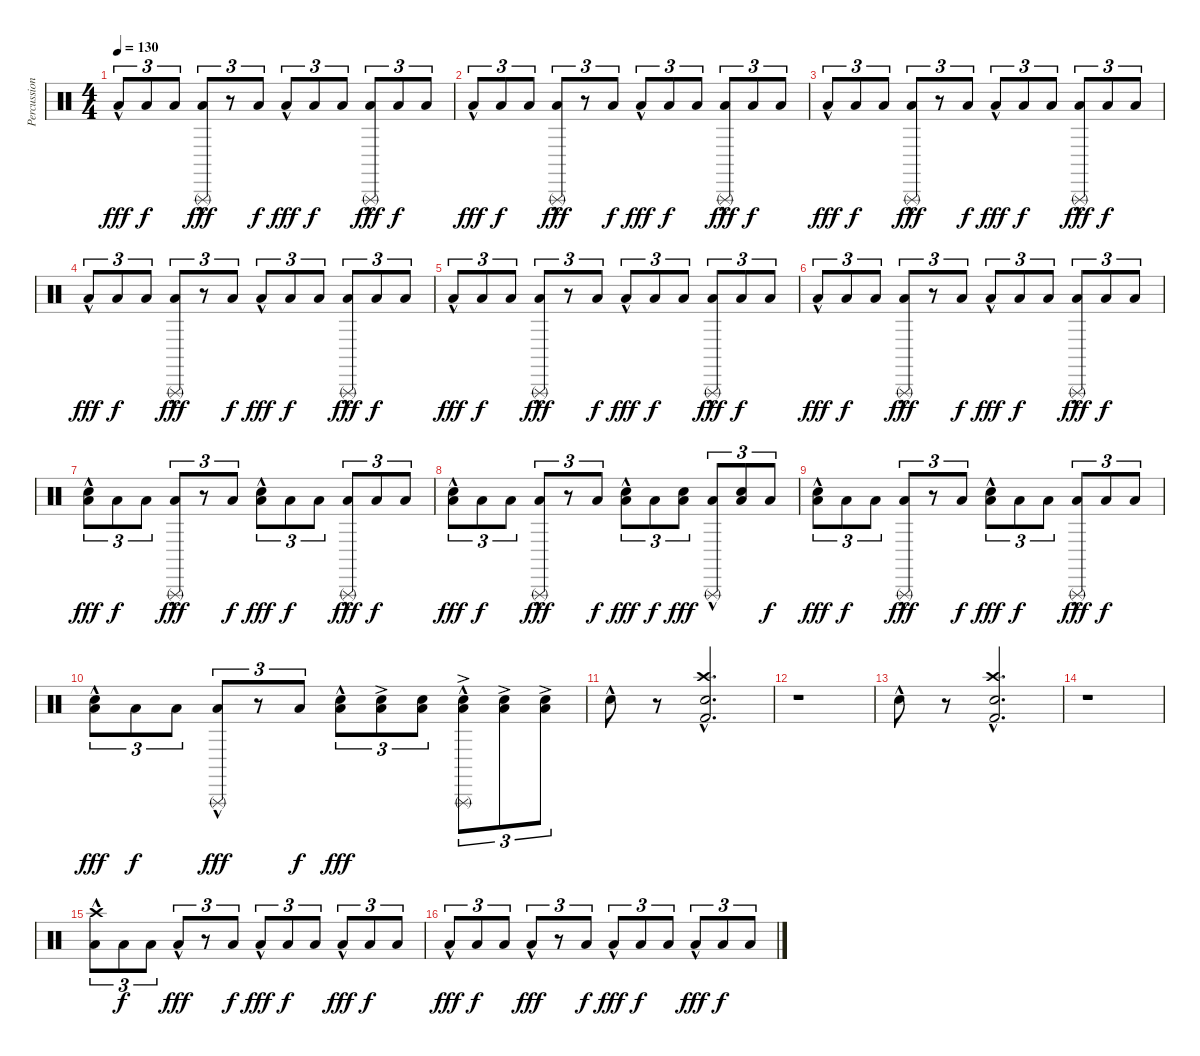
\track ("Percussion" "Percussion") {instrument percussion}
\staff {score}
\articulation defaults
\ts (4 4)
\tempo 130
\clef neutral
\ks c "Low Tom (hit)"{hac}.8{tu (3 2) dy fff} "Low Tom (hit)".8{tu (3 2) dy f} "Low Tom (hit)".8{tu (3 2)}
("Low Tom (hit)"{hac} "Triangle (rnute)").8{tu (3 2) dy fff} r.8{tu (3 2)} "Low Tom (hit)".8{tu (3 2) dy f} "Low Tom (hit)"{hac}.8{tu (3 2) dy fff} "Low Tom (hit)".8{tu (3 2) dy f} "Low Tom (hit)".8{tu (3 2)} ("Low Tom (hit)"{hac} "Triangle (rnute)").8{tu (3 2) dy fff} "Low Tom (hit)".8{tu (3 2) dy f} "Low Tom (hit)".8{tu (3 2)} |
"Low Tom (hit)"{hac}.8{tu (3 2) dy fff} "Low Tom (hit)".8{tu (3 2) dy f} "Low Tom (hit)".8{tu (3 2)} ("Low Tom (hit)"{hac} "Triangle (rnute)").8{tu (3 2) dy fff} r.8{tu (3 2)} "Low Tom (hit)".8{tu (3 2) dy f} "Low Tom (hit)"{hac}.8{tu (3 2) dy fff} "Low Tom (hit)".8{tu (3 2) dy f} "Low Tom (hit)".8{tu (3 2)} ("Low Tom (hit)"{hac} "Triangle (rnute)").8{tu (3 2) dy fff} "Low Tom (hit)".8{tu (3 2) dy f} "Low Tom (hit)".8{tu (3 2)} |
"Low Tom (hit)"{hac}.8{tu (3 2) dy fff} "Low Tom (hit)".8{tu (3 2) dy f} "Low Tom (hit)".8{tu (3 2)} ("Low Tom (hit)"{hac} "Triangle (rnute)").8{tu (3 2) dy fff} r.8{tu (3 2)} "Low Tom (hit)".8{tu (3 2) dy f} "Low Tom (hit)"{hac}.8{tu (3 2) dy fff} "Low Tom (hit)".8{tu (3 2) dy f} "Low Tom (hit)".8{tu (3 2)} ("Low Tom (hit)"{hac} "Triangle (rnute)").8{tu (3 2) dy fff} "Low Tom (hit)".8{tu (3 2) dy f} "Low Tom (hit)".8{tu (3 2)} |
"Low Tom (hit)"{hac}.8{tu (3 2) dy fff} "Low Tom (hit)".8{tu (3 2) dy f} "Low Tom (hit)".8{tu (3 2)} ("Low Tom (hit)"{hac} "Triangle (rnute)").8{tu (3 2) dy fff} r.8{tu (3 2)} "Low Tom (hit)".8{tu (3 2) dy f} "Low Tom (hit)"{hac}.8{tu (3 2) dy fff} "Low Tom (hit)".8{tu (3 2) dy f} "Low Tom (hit)".8{tu (3 2)} ("Low Tom (hit)"{hac} "Triangle (rnute)").8{tu (3 2) dy fff} "Low Tom (hit)".8{tu (3 2) dy f} "Low Tom (hit)".8{tu (3 2)} |
"Low Tom (hit)"{hac}.8{tu (3 2) dy fff} "Low Tom (hit)".8{tu (3 2) dy f} "Low Tom (hit)".8{tu (3 2)} ("Low Tom (hit)"{hac} "Triangle (rnute)").8{tu (3 2) dy fff} r.8{tu (3 2)} "Low Tom (hit)".8{tu (3 2) dy f} "Low Tom (hit)"{hac}.8{tu (3 2) dy fff} "Low Tom (hit)".8{tu (3 2) dy f} "Low Tom (hit)".8{tu (3 2)} ("Low Tom (hit)"{hac} "Triangle (rnute)").8{tu (3 2) dy fff} "Low Tom (hit)".8{tu (3 2) dy f} "Low Tom (hit)".8{tu (3 2)} |
"Low Tom (hit)"{hac}.8{tu (3 2) dy fff} "Low Tom (hit)".8{tu (3 2) dy f} "Low Tom (hit)".8{tu (3 2)} ("Low Tom (hit)"{hac} "Triangle (rnute)").8{tu (3 2) dy fff} r.8{tu (3 2)} "Low Tom (hit)".8{tu (3 2) dy f} "Low Tom (hit)"{hac}.8{tu (3 2) dy fff} "Low Tom (hit)".8{tu (3 2) dy f} "Low Tom (hit)".8{tu (3 2)} ("Low Tom (hit)"{hac} "Triangle (rnute)").8{tu (3 2) dy fff} "Low Tom (hit)".8{tu (3 2) dy f} "Low Tom (hit)".8{tu (3 2)} |
("Low Tom (hit)"{hac} "Snare (hit) 2").8{tu (3 2) dy fff} "Low Tom (hit)".8{tu (3 2) dy f} "Low Tom (hit)".8{tu (3 2)} ("Low Tom (hit)"{hac} "Triangle (rnute)").8{tu (3 2) dy fff} r.8{tu (3 2)} "Low Tom (hit)".8{tu (3 2) dy f} ("Low Tom (hit)"{hac} "Snare (hit) 2").8{tu (3 2) dy fff} "Low Tom (hit)".8{tu (3 2) dy f} "Low Tom (hit)".8{tu (3 2)} ("Low Tom (hit)"{hac} "Triangle (rnute)").8{tu (3 2) dy fff} "Low Tom (hit)".8{tu (3 2) dy f} "Low Tom (hit)".8{tu (3 2)} |
("Low Tom (hit)"{hac} "Snare (hit) 2").8{tu (3 2) dy fff} "Low Tom (hit)".8{tu (3 2) dy f} "Low Tom (hit)".8{tu (3 2)} ("Low Tom (hit)"{hac} "Triangle (rnute)").8{tu (3 2) dy fff} r.8{tu (3 2)} "Low Tom (hit)".8{tu (3 2) dy f} ("Low Tom (hit)"{hac} "Snare (hit) 2").8{tu (3 2) dy fff} "Low Tom (hit)".8{tu (3 2) dy f} ("Low Tom (hit)" "Snare (hit) 2").8{tu (3 2) dy fff} ("Low Tom (hit)"{hac} "Triangle (rnute)").8{tu (3 2)} ("Low Tom (hit)" "Snare (hit) 2").8{tu (3 2)} "Low Tom (hit)".8{tu (3 2) dy f} |
("Low Tom (hit)"{hac} "Snare (hit) 2").8{tu (3 2) dy fff} "Low Tom (hit)".8{tu (3 2) dy f} "Low Tom (hit)".8{tu (3 2)} ("Low Tom (hit)"{hac} "Triangle (rnute)").8{tu (3 2) dy fff} r.8{tu (3 2)} "Low Tom (hit)".8{tu (3 2) dy f} ("Low Tom (hit)"{hac} "Snare (hit) 2").8{tu (3 2) dy fff} "Low Tom (hit)".8{tu (3 2) dy f} "Low Tom (hit)".8{tu (3 2)} ("Low Tom (hit)"{hac} "Triangle (rnute)").8{tu (3 2) dy fff} "Low Tom (hit)".8{tu (3 2) dy f} "Low Tom (hit)".8{tu (3 2)} |
("Low Tom (hit)"{hac} "Snare (hit) 2").8{tu (3 2) dy fff} "Low Tom (hit)".8{tu (3 2) dy f} "Low Tom (hit)".8{tu (3 2)} ("Low Tom (hit)"{hac} "Triangle (rnute)").8{tu (3 2) dy fff} r.8{tu (3 2)} "Low Tom (hit)".8{tu (3 2) dy f} ("Low Tom (hit)"{hac} "Snare (hit) 2").8{tu (3 2) dy fff} ("Low Tom (hit)" "Snare (hit) 2"{ac}).8{tu (3 2)} ("Low Tom (hit)" "Snare (hit) 2").8{tu (3 2)} ("Low Tom (hit)"{hac} "Snare (hit) 2"{ac} "Triangle (rnute)").8{tu (3 2)} ("Low Tom (hit)" "Snare (hit) 2"{ac}).8{tu (3 2)} ("Low Tom (hit)" "Snare (hit) 2"{ac}).8{tu (3 2)} |
"Snare (hit) 2"{hac}.8 r.8 ("Crash high (hit)"{hac} "Snare (hit) 2"{hac} "Kick (hit) 2"{hac}).2{d} |
r.1 |
"Snare (hit) 2"{hac}.8 r.8 ("Crash high (hit)"{hac} "Snare (hit) 2"{hac} "Kick (hit) 2"{hac}).2{d} |
r.1 |
("Crash high (hit)"{hac} "Low Tom (hit)"{hac}).8{tu (3 2)} "Low Tom (hit)".8{tu (3 2) dy f} "Low Tom (hit)".8{tu (3 2)} "Low Tom (hit)"{hac}.8{tu (3 2) dy fff} r.8{tu (3 2)} "Low Tom (hit)".8{tu (3 2) dy f} "Low Tom (hit)"{hac}.8{tu (3 2) dy fff} "Low Tom (hit)".8{tu (3 2) dy f} "Low Tom (hit)".8{tu (3 2)} "Low Tom (hit)"{hac}.8{tu (3 2) dy fff} "Low Tom (hit)".8{tu (3 2) dy f} "Low Tom (hit)".8{tu (3 2)} |
"Low Tom (hit)"{hac}.8{tu (3 2) dy fff} "Low Tom (hit)".8{tu (3 2) dy f} "Low Tom (hit)".8{tu (3 2)} "Low Tom (hit)"{hac}.8{tu (3 2) dy fff} r.8{tu (3 2)} "Low Tom (hit)".8{tu (3 2) dy f} "Low Tom (hit)"{hac}.8{tu (3 2) dy fff} "Low Tom (hit)".8{tu (3 2) dy f} "Low Tom (hit)".8{tu (3 2)} "Low Tom (hit)"{hac}.8{tu (3 2) dy fff} "Low Tom (hit)".8{tu (3 2) dy f} "Low Tom (hit)".8{tu (3 2)}
